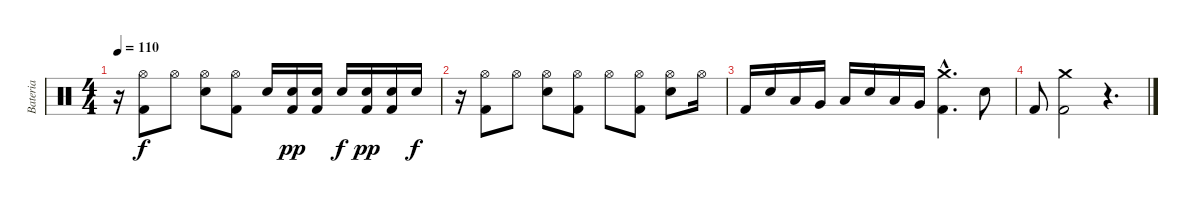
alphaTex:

\track ("Bateria" "Bateria") {instrument percussion}
\staff {score}
\articulation defaults
\ts (4 4)
\tempo 110
\clef neutral
\ks c
r.16{dy f} ("Hi-Hat (open)" "Kick (hit) 2").8 "Hi-Hat (open)".8 ("Hi-Hat (open)" "Snare (hit) 2").8 ("Hi-Hat (open)" "Kick (hit) 2").8 "Snare (hit) 2".16 ("Kick (hit) 2" "Snare (hit) 2").16{dy pp} ("Kick (hit) 2" "Snare (hit) 2").16 "Snare (hit) 2".16{dy f} ("Kick (hit) 2" "Snare (hit) 2").16{dy pp} ("Kick (hit) 2" "Snare (hit) 2").16 "Snare (hit) 2".16{dy f} |
r.16 ("Hi-Hat (open)" "Kick (hit) 2").8 "Hi-Hat (open)".8 ("Hi-Hat (open)" "Snare (hit) 2").8 ("Hi-Hat (open)" "Kick (hit) 2").8 "Hi-Hat (open)".8 ("Hi-Hat (open)" "Kick (hit) 2").8 ("Hi-Hat (open)" "Snare (hit) 2").8 "Hi-Hat (open)".16 |
"Kick (hit) 2".16 "Snare (hit) 2".16 "Low Tom (hit)".16 "Very Low Tom (hit)".16 "Low Floor Tom (hit)".16 "Snare (hit) 2".16 "Low Tom (hit)".16 "Very Low Tom (hit)".16 ("Crash medium (hit)"{hac} "Kick (hit) 2"{hac}).4{d} "Snare (hit) 2".8 |
"Kick (hit) 2".8 ("Crash medium (hit)" "Kick (hit) 2").2 r.4{d}
